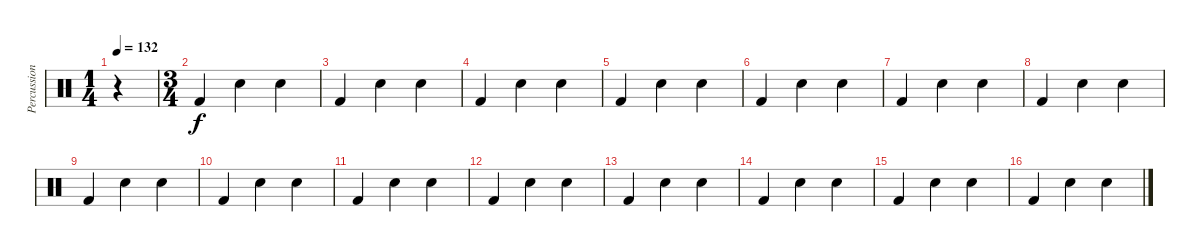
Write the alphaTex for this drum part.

\track ("Percussions" "Percussion") {instrument percussion}
\staff {score}
\articulation defaults
\ts (1 4)
\tempo 132
\clef neutral
\ks c
r.4{dy f} |
\ts (3 4)
"Kick (hit) 2".4 "Electric Snare (hit)".4 "Electric Snare (hit)".4 |
"Kick (hit) 2".4 "Electric Snare (hit)".4 "Electric Snare (hit)".4 |
"Kick (hit) 2".4 "Electric Snare (hit)".4 "Electric Snare (hit)".4 |
"Kick (hit) 2".4 "Electric Snare (hit)".4 "Electric Snare (hit)".4 |
"Kick (hit) 2".4 "Electric Snare (hit)".4 "Electric Snare (hit)".4 |
"Kick (hit) 2".4 "Electric Snare (hit)".4 "Electric Snare (hit)".4 |
"Kick (hit) 2".4 "Electric Snare (hit)".4 "Electric Snare (hit)".4 |
"Kick (hit) 2".4 "Electric Snare (hit)".4 "Electric Snare (hit)".4 |
"Kick (hit) 2".4 "Electric Snare (hit)".4 "Electric Snare (hit)".4 |
"Kick (hit) 2".4 "Electric Snare (hit)".4 "Electric Snare (hit)".4 |
"Kick (hit) 2".4 "Electric Snare (hit)".4 "Electric Snare (hit)".4 |
"Kick (hit) 2".4 "Electric Snare (hit)".4 "Electric Snare (hit)".4 |
"Kick (hit) 2".4 "Electric Snare (hit)".4 "Electric Snare (hit)".4 |
"Kick (hit) 2".4 "Electric Snare (hit)".4 "Electric Snare (hit)".4 |
"Kick (hit) 2".4 "Electric Snare (hit)".4 "Electric Snare (hit)".4
